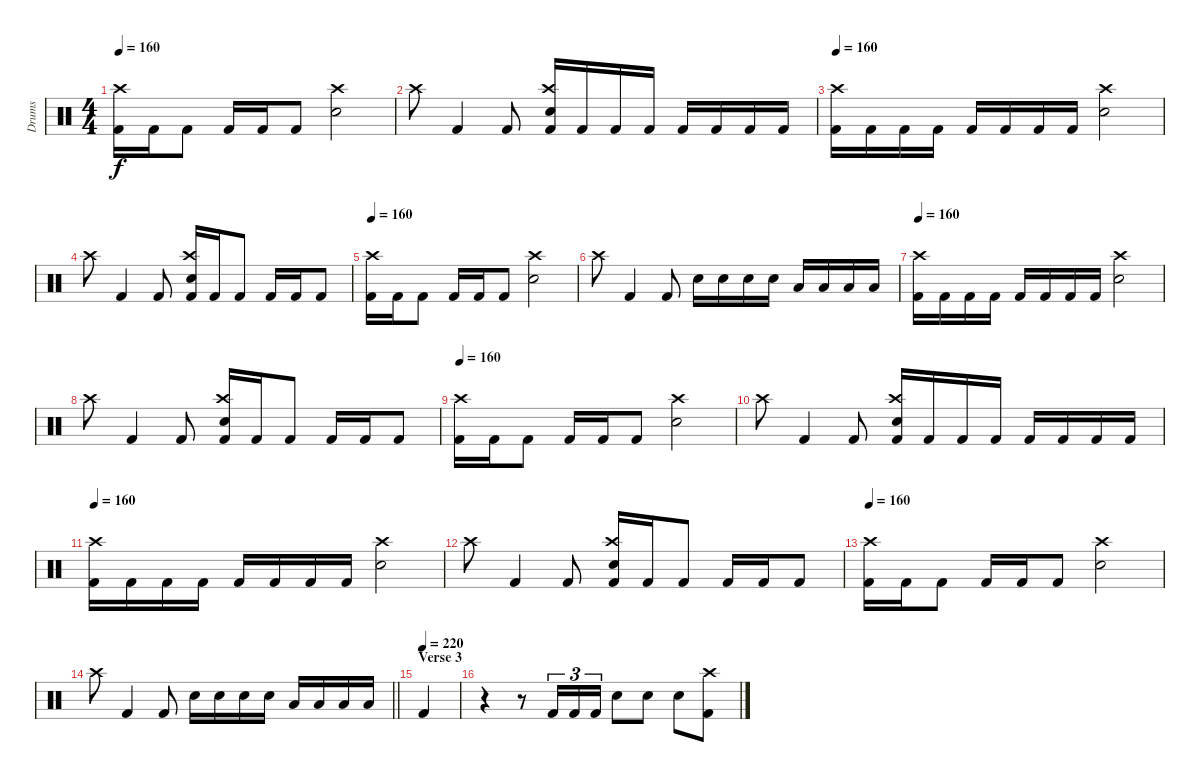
\track ("Drums" "Drums") {instrument percussion}
\staff {score}
\articulation defaults
\ts (4 4)
\tempo 160
\clef neutral
\ks c
("Kick (hit) 2" "Crash high (hit)").16{dy f} "Kick (hit) 2".16 "Kick (hit) 2".8 "Kick (hit) 2".16 "Kick (hit) 2".16 "Kick (hit) 2".8 ("Electric Snare (hit)" "Crash high (hit)").2 |
"Crash high (hit)".8 "Kick (hit) 2".4 "Kick (hit) 2".8 ("Kick (hit) 2" "Electric Snare (hit)" "Crash high (hit)").16 "Kick (hit) 2".16 "Kick (hit) 2".16 "Kick (hit) 2".16 "Kick (hit) 2".16 "Kick (hit) 2".16 "Kick (hit) 2".16 "Kick (hit) 2".16 |
\tempo 160
("Kick (hit) 2" "Crash high (hit)").16 "Kick (hit) 2".16 "Kick (hit) 2".16 "Kick (hit) 2".16 "Kick (hit) 2".16 "Kick (hit) 2".16 "Kick (hit) 2".16 "Kick (hit) 2".16 ("Electric Snare (hit)" "Crash high (hit)").2 |
"Crash high (hit)".8 "Kick (hit) 2".4 "Kick (hit) 2".8 ("Kick (hit) 2" "Electric Snare (hit)" "Crash high (hit)").16 "Kick (hit) 2".16 "Kick (hit) 2".8 "Kick (hit) 2".16 "Kick (hit) 2".16 "Kick (hit) 2".8 |
\tempo 160
("Kick (hit) 2" "Crash high (hit)").16 "Kick (hit) 2".16 "Kick (hit) 2".8 "Kick (hit) 2".16 "Kick (hit) 2".16 "Kick (hit) 2".8 ("Electric Snare (hit)" "Crash high (hit)").2 |
"Crash high (hit)".8 "Kick (hit) 2".4 "Kick (hit) 2".8 "Electric Snare (hit)".16 "Electric Snare (hit)".16 "Electric Snare (hit)".16 "Electric Snare (hit)".16 "Low Tom (hit)".16 "Low Tom (hit)".16 "Low Tom (hit)".16 "Low Tom (hit)".16 |
\tempo 160
("Kick (hit) 2" "Crash high (hit)").16 "Kick (hit) 2".16 "Kick (hit) 2".16 "Kick (hit) 2".16 "Kick (hit) 2".16 "Kick (hit) 2".16 "Kick (hit) 2".16 "Kick (hit) 2".16 ("Electric Snare (hit)" "Crash high (hit)").2 |
"Crash high (hit)".8 "Kick (hit) 2".4 "Kick (hit) 2".8 ("Kick (hit) 2" "Electric Snare (hit)" "Crash high (hit)").16 "Kick (hit) 2".16 "Kick (hit) 2".8 "Kick (hit) 2".16 "Kick (hit) 2".16 "Kick (hit) 2".8 |
\tempo 160
("Kick (hit) 2" "Crash high (hit)").16 "Kick (hit) 2".16 "Kick (hit) 2".8 "Kick (hit) 2".16 "Kick (hit) 2".16 "Kick (hit) 2".8 ("Electric Snare (hit)" "Crash high (hit)").2 |
"Crash high (hit)".8 "Kick (hit) 2".4 "Kick (hit) 2".8 ("Kick (hit) 2" "Electric Snare (hit)" "Crash high (hit)").16 "Kick (hit) 2".16 "Kick (hit) 2".16 "Kick (hit) 2".16 "Kick (hit) 2".16 "Kick (hit) 2".16 "Kick (hit) 2".16 "Kick (hit) 2".16 |
\tempo 160
("Kick (hit) 2" "Crash high (hit)").16 "Kick (hit) 2".16 "Kick (hit) 2".16 "Kick (hit) 2".16 "Kick (hit) 2".16 "Kick (hit) 2".16 "Kick (hit) 2".16 "Kick (hit) 2".16 ("Electric Snare (hit)" "Crash high (hit)").2 |
"Crash high (hit)".8 "Kick (hit) 2".4 "Kick (hit) 2".8 ("Kick (hit) 2" "Electric Snare (hit)" "Crash high (hit)").16 "Kick (hit) 2".16 "Kick (hit) 2".8 "Kick (hit) 2".16 "Kick (hit) 2".16 "Kick (hit) 2".8 |
\tempo 160
("Kick (hit) 2" "Crash high (hit)").16 "Kick (hit) 2".16 "Kick (hit) 2".8 "Kick (hit) 2".16 "Kick (hit) 2".16 "Kick (hit) 2".8 ("Electric Snare (hit)" "Crash high (hit)").2 |
\barLineRight lightlight "Crash high (hit)".8 "Kick (hit) 2".4 "Kick (hit) 2".8 "Electric Snare (hit)".16 "Electric Snare (hit)".16 "Electric Snare (hit)".16 "Electric Snare (hit)".16 "Low Tom (hit)".16 "Low Tom (hit)".16 "Low Tom (hit)".16 "Low Tom (hit)".16
|
\section ("" "Verse 3")
\tempo (220)
"Kick (hit) 2".4 |
r.4 r.8 "Kick (hit) 2".16{tu (3 2)} "Kick (hit) 2".16{tu (3 2)} "Kick (hit) 2".16{tu (3 2)} "Electric Snare (hit)".8 "Electric Snare (hit)".8 "Electric Snare (hit)".8 ("Kick (hit) 2" "Crash high (hit)").8
